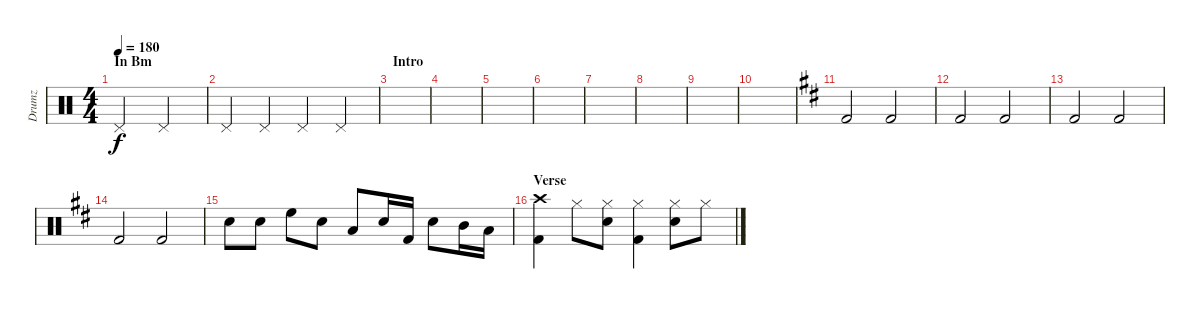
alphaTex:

\track ("Drumz" "Drumz") {instrument percussion}
\staff {score}
\articulation defaults
\ts (4 4)
\section ("" "In Bm")
\tempo 180
\clef neutral
\ks c "Pedal Hi-Hat (hit)".2{dy f} "Pedal Hi-Hat (hit)".2
|
"Pedal Hi-Hat (hit)".4 "Pedal Hi-Hat (hit)".4 "Pedal Hi-Hat (hit)".4 "Pedal Hi-Hat (hit)".4 |
\section ("" "Intro")
|
|
|
|
|
|
|
|
\ks d "Kick (hit) 2".2 "Kick (hit) 2".2
|
"Kick (hit) 2".2 "Kick (hit) 2".2 |
"Kick (hit) 2".2 "Kick (hit) 2".2 |
"Kick (hit) 2".2 "Kick (hit) 2".2 |
"Snare (hit) 2".8 "Snare (hit) 2".8 "High Floor Tom (hit)".8 "Snare (hit) 2".8 "Low Tom (hit)".8 "Snare (hit) 2".16 "Kick (hit) 2".16 "Snare (hit) 2".8 "Mid Tom (hit)".16 "Low Tom (hit)".16 |
\section ("" "Verse")
("Crash high (hit)" "Kick (hit) 2").4 "Hi-Hat (closed)".8 ("Hi-Hat (closed)" "Snare (hit) 2").8 ("Hi-Hat (closed)" "Kick (hit) 2").4 ("Hi-Hat (closed)" "Snare (hit) 2").8 "Hi-Hat (closed)".8
